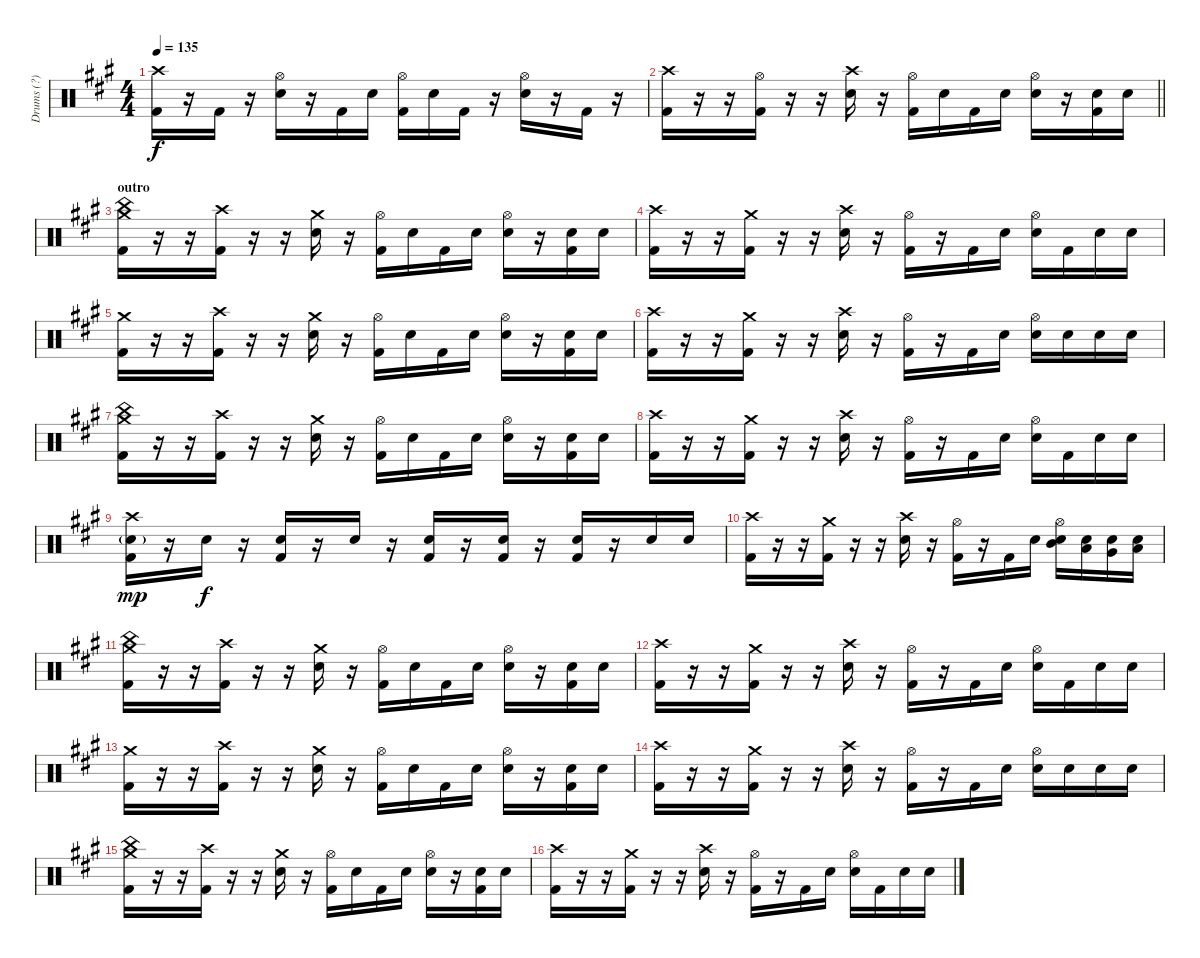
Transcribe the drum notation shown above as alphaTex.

\track ("Drums (?)" "Drums (?)") {instrument percussion}
\staff {score}
\articulation defaults
\ts (4 4)
\tempo 135
\clef neutral
\ks a
("Crash high (hit)" "Kick (hit) 2").16{dy f} r.16 "Kick (hit) 2".16 r.16 ("Hi-Hat (open)" "Electric Snare (hit)").16 r.16 "Kick (hit) 2".16 "Electric Snare (hit)".16 ("Hi-Hat (open)" "Kick (hit) 2").16 "Electric Snare (hit)".16 "Kick (hit) 2".16 r.16 ("Hi-Hat (open)" "Electric Snare (hit)").16 r.16 "Kick (hit) 2".16 r.16 |
\barLineRight lightlight
("Crash high (hit)" "Kick (hit) 2").16 r.16 r.16 ("Hi-Hat (open)" "Kick (hit) 2").16 r.16 r.16 ("Crash high (hit)" "Electric Snare (hit)").16 r.16 ("Hi-Hat (open)" "Kick (hit) 2").16 "Electric Snare (hit)".16 "Kick (hit) 2".16 "Electric Snare (hit)".16 ("Hi-Hat (open)" "Electric Snare (hit)").16 r.16 ("Electric Snare (hit)" "Kick (hit) 2").16 "Electric Snare (hit)".16 |
\section ("" "outro")
("Crash medium (hit)" "China (hit)" "Kick (hit) 2").16 r.16 r.16 ("Crash high (hit)" "Kick (hit) 2").16 r.16 r.16 ("Crash medium (hit)" "Electric Snare (hit)").16 r.16 ("Hi-Hat (open)" "Kick (hit) 2").16 "Electric Snare (hit)".16 "Kick (hit) 2".16 "Electric Snare (hit)".16 ("Hi-Hat (open)" "Electric Snare (hit)").16 r.16 ("Electric Snare (hit)" "Kick (hit) 2").16 "Electric Snare (hit)".16 |
("Crash high (hit)" "Kick (hit) 2").16 r.16 r.16 ("Crash medium (hit)" "Kick (hit) 2").16 r.16 r.16 ("Crash high (hit)" "Electric Snare (hit)").16 r.16 ("Hi-Hat (open)" "Kick (hit) 2").16 r.16 "Kick (hit) 2".16 "Electric Snare (hit)".16 ("Hi-Hat (open)" "Electric Snare (hit)").16 "Kick (hit) 2".16 "Electric Snare (hit)".16 "Electric Snare (hit)".16 |
("Crash medium (hit)" "Kick (hit) 2").16 r.16 r.16 ("Crash high (hit)" "Kick (hit) 2").16 r.16 r.16 ("Crash medium (hit)" "Electric Snare (hit)").16 r.16 ("Hi-Hat (open)" "Kick (hit) 2").16 "Electric Snare (hit)".16 "Kick (hit) 2".16 "Electric Snare (hit)".16 ("Hi-Hat (open)" "Electric Snare (hit)").16 r.16 ("Electric Snare (hit)" "Kick (hit) 2").16 "Electric Snare (hit)".16 |
("Crash high (hit)" "Kick (hit) 2").16 r.16 r.16 ("Crash medium (hit)" "Kick (hit) 2").16 r.16 r.16 ("Crash high (hit)" "Electric Snare (hit)").16 r.16 ("Hi-Hat (open)" "Kick (hit) 2").16 r.16 "Kick (hit) 2".16 "Electric Snare (hit)".16 ("Hi-Hat (open)" "Electric Snare (hit)").16 "Electric Snare (hit)".16 "Electric Snare (hit)".16 "Electric Snare (hit)".16 |
("Crash medium (hit)" "China (hit)" "Kick (hit) 2").16 r.16 r.16 ("Crash high (hit)" "Kick (hit) 2").16 r.16 r.16 ("Crash medium (hit)" "Electric Snare (hit)").16 r.16 ("Hi-Hat (open)" "Kick (hit) 2").16 "Electric Snare (hit)".16 "Kick (hit) 2".16 "Electric Snare (hit)".16 ("Hi-Hat (open)" "Electric Snare (hit)").16 r.16 ("Electric Snare (hit)" "Kick (hit) 2").16 "Electric Snare (hit)".16 |
("Crash high (hit)" "Kick (hit) 2").16 r.16 r.16 ("Crash medium (hit)" "Kick (hit) 2").16 r.16 r.16 ("Crash high (hit)" "Electric Snare (hit)").16 r.16 ("Hi-Hat (open)" "Kick (hit) 2").16 r.16 "Kick (hit) 2".16 "Electric Snare (hit)".16 ("Hi-Hat (open)" "Electric Snare (hit)").16 "Kick (hit) 2".16 "Electric Snare (hit)".16 "Electric Snare (hit)".16 |
("Crash high (hit)" "Electric Snare (hit)"{g} "Kick (hit) 2").16{dy mp} r.16 "Electric Snare (hit)".16{dy f} r.16 ("Electric Snare (hit)" "Kick (hit) 2").16 r.16 "Electric Snare (hit)".16 r.16 ("Electric Snare (hit)" "Kick (hit) 2").16 r.16 ("Electric Snare (hit)" "Kick (hit) 2").16 r.16 ("Electric Snare (hit)" "Kick (hit) 2").16 r.16 "Electric Snare (hit)".16 "Electric Snare (hit)".16 |
("Crash high (hit)" "Kick (hit) 2").16 r.16 r.16 ("Crash medium (hit)" "Kick (hit) 2").16 r.16 r.16 ("Crash high (hit)" "Electric Snare (hit)").16 r.16 ("Hi-Hat (open)" "Kick (hit) 2").16 r.16 "Kick (hit) 2".16 "Electric Snare (hit)".16 ("Hi-Hat (open)" "Mid Tom (hit)" "Electric Snare (hit)").16 ("Low Tom (hit)" "Electric Snare (hit)").16 ("Very Low Tom (hit)" "Electric Snare (hit)").16 ("Low Floor Tom (hit)" "Electric Snare (hit)").16 |
("Crash medium (hit)" "China (hit)" "Kick (hit) 2").16 r.16 r.16 ("Crash high (hit)" "Kick (hit) 2").16 r.16 r.16 ("Crash medium (hit)" "Electric Snare (hit)").16 r.16 ("Hi-Hat (open)" "Kick (hit) 2").16 "Electric Snare (hit)".16 "Kick (hit) 2".16 "Electric Snare (hit)".16 ("Hi-Hat (open)" "Electric Snare (hit)").16 r.16 ("Electric Snare (hit)" "Kick (hit) 2").16 "Electric Snare (hit)".16 |
("Crash high (hit)" "Kick (hit) 2").16 r.16 r.16 ("Crash medium (hit)" "Kick (hit) 2").16 r.16 r.16 ("Crash high (hit)" "Electric Snare (hit)").16 r.16 ("Hi-Hat (open)" "Kick (hit) 2").16 r.16 "Kick (hit) 2".16 "Electric Snare (hit)".16 ("Hi-Hat (open)" "Electric Snare (hit)").16 "Kick (hit) 2".16 "Electric Snare (hit)".16 "Electric Snare (hit)".16 |
("Crash medium (hit)" "Kick (hit) 2").16 r.16 r.16 ("Crash high (hit)" "Kick (hit) 2").16 r.16 r.16 ("Crash medium (hit)" "Electric Snare (hit)").16 r.16 ("Hi-Hat (open)" "Kick (hit) 2").16 "Electric Snare (hit)".16 "Kick (hit) 2".16 "Electric Snare (hit)".16 ("Hi-Hat (open)" "Electric Snare (hit)").16 r.16 ("Electric Snare (hit)" "Kick (hit) 2").16 "Electric Snare (hit)".16 |
("Crash high (hit)" "Kick (hit) 2").16 r.16 r.16 ("Crash medium (hit)" "Kick (hit) 2").16 r.16 r.16 ("Crash high (hit)" "Electric Snare (hit)").16 r.16 ("Hi-Hat (open)" "Kick (hit) 2").16 r.16 "Kick (hit) 2".16 "Electric Snare (hit)".16 ("Hi-Hat (open)" "Electric Snare (hit)").16 "Electric Snare (hit)".16 "Electric Snare (hit)".16 "Electric Snare (hit)".16 |
("Crash medium (hit)" "China (hit)" "Kick (hit) 2").16 r.16 r.16 ("Crash high (hit)" "Kick (hit) 2").16 r.16 r.16 ("Crash medium (hit)" "Electric Snare (hit)").16 r.16 ("Hi-Hat (open)" "Kick (hit) 2").16 "Electric Snare (hit)".16 "Kick (hit) 2".16 "Electric Snare (hit)".16 ("Hi-Hat (open)" "Electric Snare (hit)").16 r.16 ("Electric Snare (hit)" "Kick (hit) 2").16 "Electric Snare (hit)".16 |
("Crash high (hit)" "Kick (hit) 2").16 r.16 r.16 ("Crash medium (hit)" "Kick (hit) 2").16 r.16 r.16 ("Crash high (hit)" "Electric Snare (hit)").16 r.16 ("Hi-Hat (open)" "Kick (hit) 2").16 r.16 "Kick (hit) 2".16 "Electric Snare (hit)".16 ("Hi-Hat (open)" "Electric Snare (hit)").16 "Kick (hit) 2".16 "Electric Snare (hit)".16 "Electric Snare (hit)".16
